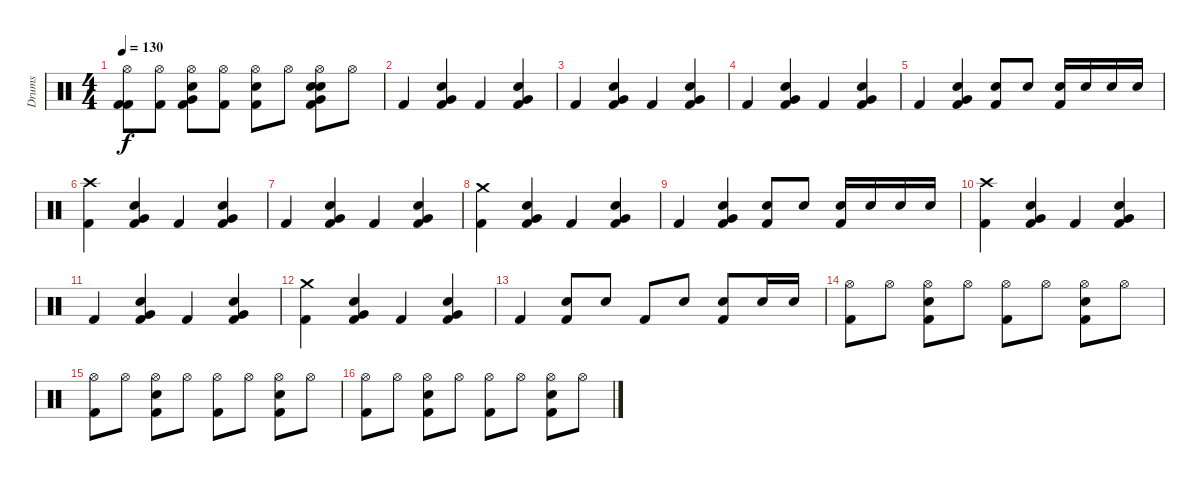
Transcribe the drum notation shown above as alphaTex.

\track ("Drums" "Drums") {instrument percussion}
\staff {score}
\articulation defaults
\ts (4 4)
\tempo 130
\clef neutral
\ks c
("Kick (hit) 2" "Kick (hit) 2" "Hi-Hat (open)").8{dy f} ("Kick (hit) 2" "Hi-Hat (open)").8 ("Electric Snare (hit)" "Very Low Tom (hit)" "Kick (hit) 2" "Hi-Hat (open)").8 ("Kick (hit) 2" "Hi-Hat (open)").8 ("Kick (hit) 2" "Electric Snare (hit)" "Hi-Hat (open)").8 "Hi-Hat (open)".8 ("Electric Snare (hit)" "Very Low Tom (hit)" "Kick (hit) 2" "Electric Snare (hit)" "Hi-Hat (open)").8 "Hi-Hat (open)".8 |
"Kick (hit) 2".4 ("Electric Snare (hit)" "Very Low Tom (hit)" "Kick (hit) 2").4 "Kick (hit) 2".4 ("Electric Snare (hit)" "Very Low Tom (hit)" "Kick (hit) 2").4 |
"Kick (hit) 2".4 ("Electric Snare (hit)" "Very Low Tom (hit)" "Kick (hit) 2").4 "Kick (hit) 2".4 ("Electric Snare (hit)" "Very Low Tom (hit)" "Kick (hit) 2").4 |
"Kick (hit) 2".4 ("Electric Snare (hit)" "Very Low Tom (hit)" "Kick (hit) 2").4 "Kick (hit) 2".4 ("Electric Snare (hit)" "Very Low Tom (hit)" "Kick (hit) 2").4 |
"Kick (hit) 2".4 ("Electric Snare (hit)" "Very Low Tom (hit)" "Kick (hit) 2").4 ("Electric Snare (hit)" "Kick (hit) 2").8 "Electric Snare (hit)".8 ("Electric Snare (hit)" "Kick (hit) 2").16 "Electric Snare (hit)".16 "Electric Snare (hit)".16 "Electric Snare (hit)".16 |
("Crash high (hit)" "Kick (hit) 2").4 ("Electric Snare (hit)" "Very Low Tom (hit)" "Kick (hit) 2").4 "Kick (hit) 2".4 ("Electric Snare (hit)" "Very Low Tom (hit)" "Kick (hit) 2").4 |
"Kick (hit) 2".4 ("Electric Snare (hit)" "Very Low Tom (hit)" "Kick (hit) 2").4 "Kick (hit) 2".4 ("Electric Snare (hit)" "Very Low Tom (hit)" "Kick (hit) 2").4 |
("Crash medium (hit)" "Kick (hit) 2").4 ("Electric Snare (hit)" "Very Low Tom (hit)" "Kick (hit) 2").4 "Kick (hit) 2".4 ("Electric Snare (hit)" "Very Low Tom (hit)" "Kick (hit) 2").4 |
"Kick (hit) 2".4 ("Electric Snare (hit)" "Very Low Tom (hit)" "Kick (hit) 2").4 ("Electric Snare (hit)" "Kick (hit) 2").8 "Electric Snare (hit)".8 ("Electric Snare (hit)" "Kick (hit) 2").16 "Electric Snare (hit)".16 "Electric Snare (hit)".16 "Electric Snare (hit)".16 |
("Crash high (hit)" "Kick (hit) 2").4 ("Electric Snare (hit)" "Very Low Tom (hit)" "Kick (hit) 2").4 "Kick (hit) 2".4 ("Electric Snare (hit)" "Very Low Tom (hit)" "Kick (hit) 2").4 |
"Kick (hit) 2".4 ("Electric Snare (hit)" "Very Low Tom (hit)" "Kick (hit) 2").4 "Kick (hit) 2".4 ("Electric Snare (hit)" "Very Low Tom (hit)" "Kick (hit) 2").4 |
("Crash medium (hit)" "Kick (hit) 2").4 ("Electric Snare (hit)" "Very Low Tom (hit)" "Kick (hit) 2").4 "Kick (hit) 2".4 ("Electric Snare (hit)" "Very Low Tom (hit)" "Kick (hit) 2").4 |
"Kick (hit) 2".4 ("Electric Snare (hit)" "Kick (hit) 2").8 "Electric Snare (hit)".8 "Kick (hit) 2".8 "Electric Snare (hit)".8 ("Electric Snare (hit)" "Kick (hit) 2").8 "Electric Snare (hit)".16 "Electric Snare (hit)".16 |
("Kick (hit) 2" "Hi-Hat (open)").8 "Hi-Hat (open)".8 ("Electric Snare (hit)" "Kick (hit) 2" "Hi-Hat (open)").8 "Hi-Hat (open)".8 ("Kick (hit) 2" "Hi-Hat (open)").8 "Hi-Hat (open)".8 ("Electric Snare (hit)" "Kick (hit) 2" "Hi-Hat (open)").8 "Hi-Hat (open)".8 |
("Kick (hit) 2" "Hi-Hat (open)").8 "Hi-Hat (open)".8 ("Electric Snare (hit)" "Kick (hit) 2" "Hi-Hat (open)").8 "Hi-Hat (open)".8 ("Kick (hit) 2" "Hi-Hat (open)").8 "Hi-Hat (open)".8 ("Electric Snare (hit)" "Kick (hit) 2" "Hi-Hat (open)").8 "Hi-Hat (open)".8 |
("Kick (hit) 2" "Hi-Hat (open)").8 "Hi-Hat (open)".8 ("Electric Snare (hit)" "Kick (hit) 2" "Hi-Hat (open)").8 "Hi-Hat (open)".8 ("Kick (hit) 2" "Hi-Hat (open)").8 "Hi-Hat (open)".8 ("Electric Snare (hit)" "Kick (hit) 2" "Hi-Hat (open)").8 "Hi-Hat (open)".8
